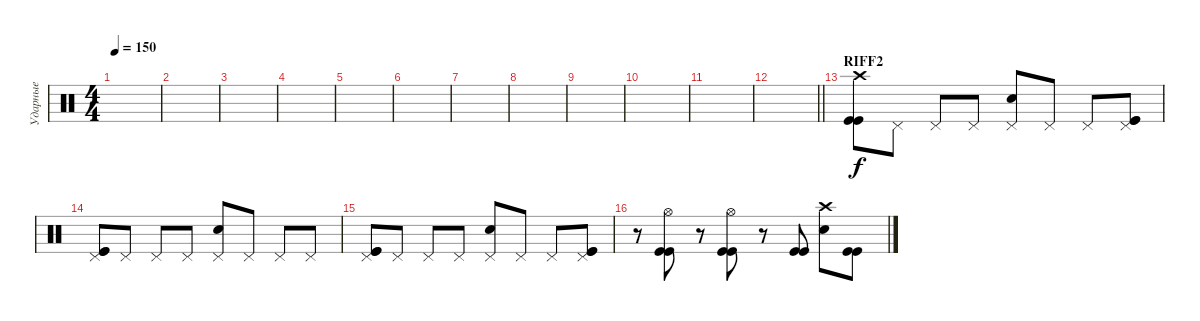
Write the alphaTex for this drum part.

\track ("Ударные" "Ударные") {instrument percussion}
\staff {score}
\articulation defaults
\ts (4 4)
\tempo 150
\clef neutral
\ks c
|
|
|
|
|
|
|
|
|
|
|
\barLineRight lightlight
|
\section ("" "RIFF2")
("Crash high (hit)" "Kick (hit)" "Kick (hit)").8 "Pedal Hi-Hat (hit)".8 "Pedal Hi-Hat (hit)".8 "Pedal Hi-Hat (hit)".8 ("Pedal Hi-Hat (hit)" "Electric Snare (hit)").8 "Pedal Hi-Hat (hit)".8 "Pedal Hi-Hat (hit)".8 ("Pedal Hi-Hat (hit)" "Kick (hit)" "Kick (hit)").8 |
("Pedal Hi-Hat (hit)" "Kick (hit)" "Kick (hit)").8 "Pedal Hi-Hat (hit)".8 "Pedal Hi-Hat (hit)".8 "Pedal Hi-Hat (hit)".8 ("Pedal Hi-Hat (hit)" "Electric Snare (hit)").8 "Pedal Hi-Hat (hit)".8 "Pedal Hi-Hat (hit)".8 "Pedal Hi-Hat (hit)".8 |
("Pedal Hi-Hat (hit)" "Kick (hit)" "Kick (hit)").8 "Pedal Hi-Hat (hit)".8 "Pedal Hi-Hat (hit)".8 "Pedal Hi-Hat (hit)".8 ("Pedal Hi-Hat (hit)" "Electric Snare (hit)").8 "Pedal Hi-Hat (hit)".8 "Pedal Hi-Hat (hit)".8 ("Pedal Hi-Hat (hit)" "Kick (hit)" "Kick (hit)").8 |
r.8 ("Hi-Hat (open)" "Kick (hit)" "Kick (hit)").8 r.8 ("Hi-Hat (open)" "Kick (hit)" "Kick (hit)").8 r.8 ("Kick (hit)" "Kick (hit)").8 ("Crash high (hit)" "Electric Snare (hit)").8 ("Kick (hit)" "Kick (hit)").8
